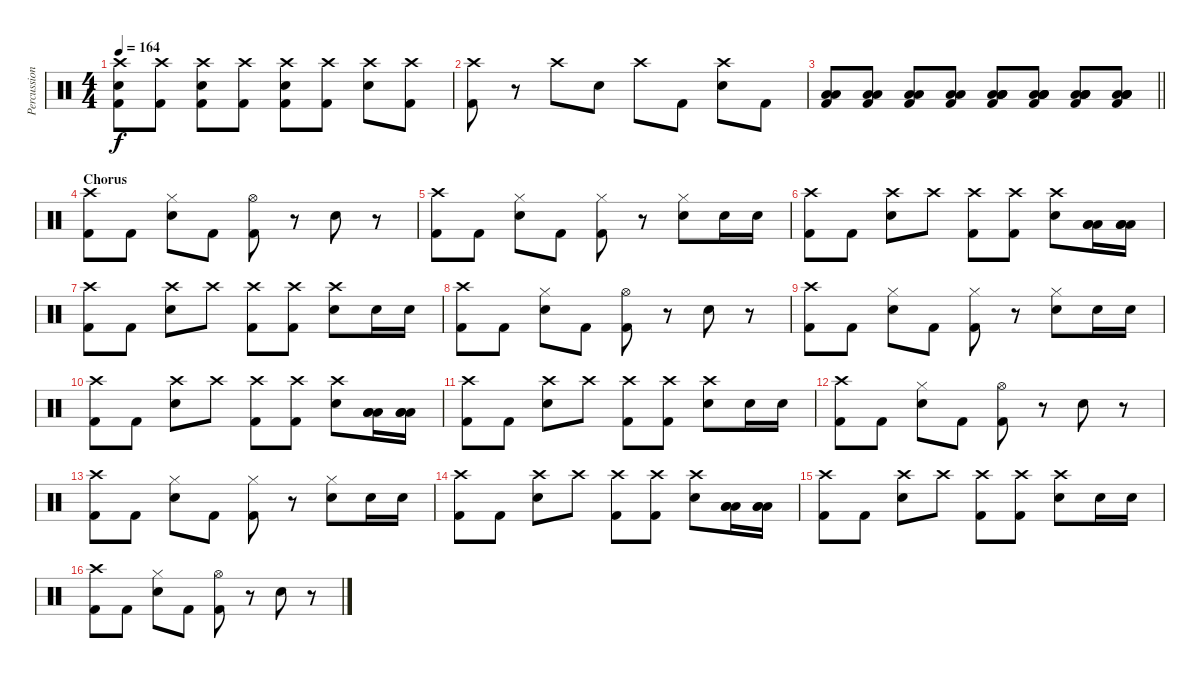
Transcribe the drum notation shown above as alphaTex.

\track ("Percussion" "Percussion") {instrument percussion}
\staff {score}
\articulation defaults
\ts (4 4)
\tempo 164
\clef neutral
\ks c
("Kick (hit) 2" "Crash high (hit)" "Snare (hit) 2").8{dy f} ("Kick (hit) 2" "Crash high (hit)").8 ("Kick (hit) 2" "Crash high (hit)" "Snare (hit) 2").8 ("Kick (hit) 2" "Crash high (hit)").8 ("Kick (hit) 2" "Crash high (hit)" "Snare (hit) 2").8 ("Kick (hit) 2" "Crash high (hit)").8 ("Crash high (hit)" "Snare (hit) 2").8 ("Kick (hit) 2" "Crash high (hit)").8 |
("Kick (hit) 2" "Crash high (hit)").8 r.8 "Crash high (hit)".8 "Snare (hit) 2".8 "Crash high (hit)".8 "Kick (hit) 2".8 ("Crash high (hit)" "Snare (hit) 2").8 "Kick (hit) 2".8 |
\barLineRight lightlight
("Kick (hit) 2" "Low Floor Tom (hit)" "Low Tom (hit)").8 ("Kick (hit) 2" "Low Floor Tom (hit)" "Low Tom (hit)").8 ("Kick (hit) 2" "Low Floor Tom (hit)" "Low Tom (hit)").8 ("Kick (hit) 2" "Low Floor Tom (hit)" "Low Tom (hit)").8 ("Kick (hit) 2" "Low Floor Tom (hit)" "Low Tom (hit)" "Low Floor Tom (hit)" "Low Tom (hit)").8 ("Kick (hit) 2" "Low Floor Tom (hit)" "Low Tom (hit)" "Low Floor Tom (hit)" "Low Tom (hit)").8 ("Kick (hit) 2" "Low Floor Tom (hit)" "Low Tom (hit)" "Low Floor Tom (hit)" "Low Tom (hit)").8 ("Kick (hit) 2" "Low Floor Tom (hit)" "Low Tom (hit)" "Low Floor Tom (hit)" "Low Tom (hit)").8 |
\section ("" "Chorus")
("Kick (hit) 2" "Crash high (hit)").8 "Kick (hit) 2".8 ("Snare (hit) 2" "Hi-Hat (closed)").8 "Kick (hit) 2".8 ("Kick (hit) 2" "Hi-Hat (open)").8 r.8 "Snare (hit) 2".8 r.8 |
("Kick (hit) 2" "Crash high (hit)").8 "Kick (hit) 2".8 ("Snare (hit) 2" "Hi-Hat (closed)").8 "Kick (hit) 2".8 ("Kick (hit) 2" "Hi-Hat (closed)").8 r.8 ("Snare (hit) 2" "Hi-Hat (closed)").8 "Snare (hit) 2".16 "Snare (hit) 2".16 |
("Kick (hit) 2" "Crash high (hit)").8 "Kick (hit) 2".8 ("Crash high (hit)" "Snare (hit) 2").8 "Crash high (hit)".8 ("Kick (hit) 2" "Crash high (hit)").8 ("Kick (hit) 2" "Crash high (hit)").8 ("Crash high (hit)" "Snare (hit) 2").8 ("Low Floor Tom (hit)" "Low Floor Tom (hit)" "Low Floor Tom (hit)").16 ("Low Floor Tom (hit)" "Low Floor Tom (hit)" "Low Floor Tom (hit)").16 |
("Kick (hit) 2" "Crash high (hit)").8 "Kick (hit) 2".8 ("Crash high (hit)" "Snare (hit) 2").8 "Crash high (hit)".8 ("Kick (hit) 2" "Crash high (hit)").8 ("Kick (hit) 2" "Crash high (hit)").8 ("Crash high (hit)" "Snare (hit) 2").8 "Snare (hit) 2".16 "Snare (hit) 2".16 |
("Kick (hit) 2" "Crash high (hit)").8 "Kick (hit) 2".8 ("Snare (hit) 2" "Hi-Hat (closed)").8 "Kick (hit) 2".8 ("Kick (hit) 2" "Hi-Hat (open)").8 r.8 "Snare (hit) 2".8 r.8 |
("Kick (hit) 2" "Crash high (hit)").8 "Kick (hit) 2".8 ("Snare (hit) 2" "Hi-Hat (closed)").8 "Kick (hit) 2".8 ("Kick (hit) 2" "Hi-Hat (closed)").8 r.8 ("Snare (hit) 2" "Hi-Hat (closed)").8 "Snare (hit) 2".16 "Snare (hit) 2".16 |
("Kick (hit) 2" "Crash high (hit)").8 "Kick (hit) 2".8 ("Crash high (hit)" "Snare (hit) 2").8 "Crash high (hit)".8 ("Kick (hit) 2" "Crash high (hit)").8 ("Kick (hit) 2" "Crash high (hit)").8 ("Crash high (hit)" "Snare (hit) 2").8 ("Low Floor Tom (hit)" "Low Floor Tom (hit)" "Low Floor Tom (hit)").16 ("Low Floor Tom (hit)" "Low Floor Tom (hit)" "Low Floor Tom (hit)").16 |
("Kick (hit) 2" "Crash high (hit)").8 "Kick (hit) 2".8 ("Crash high (hit)" "Snare (hit) 2").8 "Crash high (hit)".8 ("Kick (hit) 2" "Crash high (hit)").8 ("Kick (hit) 2" "Crash high (hit)").8 ("Crash high (hit)" "Snare (hit) 2").8 "Snare (hit) 2".16 "Snare (hit) 2".16 |
("Kick (hit) 2" "Crash high (hit)").8 "Kick (hit) 2".8 ("Snare (hit) 2" "Hi-Hat (closed)").8 "Kick (hit) 2".8 ("Kick (hit) 2" "Hi-Hat (open)").8 r.8 "Snare (hit) 2".8 r.8 |
("Kick (hit) 2" "Crash high (hit)").8 "Kick (hit) 2".8 ("Snare (hit) 2" "Hi-Hat (closed)").8 "Kick (hit) 2".8 ("Kick (hit) 2" "Hi-Hat (closed)").8 r.8 ("Snare (hit) 2" "Hi-Hat (closed)").8 "Snare (hit) 2".16 "Snare (hit) 2".16 |
("Kick (hit) 2" "Crash high (hit)").8 "Kick (hit) 2".8 ("Crash high (hit)" "Snare (hit) 2").8 "Crash high (hit)".8 ("Kick (hit) 2" "Crash high (hit)").8 ("Kick (hit) 2" "Crash high (hit)").8 ("Crash high (hit)" "Snare (hit) 2").8 ("Low Floor Tom (hit)" "Low Floor Tom (hit)" "Low Floor Tom (hit)").16 ("Low Floor Tom (hit)" "Low Floor Tom (hit)" "Low Floor Tom (hit)").16 |
("Kick (hit) 2" "Crash high (hit)").8 "Kick (hit) 2".8 ("Crash high (hit)" "Snare (hit) 2").8 "Crash high (hit)".8 ("Kick (hit) 2" "Crash high (hit)").8 ("Kick (hit) 2" "Crash high (hit)").8 ("Crash high (hit)" "Snare (hit) 2").8 "Snare (hit) 2".16 "Snare (hit) 2".16 |
("Kick (hit) 2" "Crash high (hit)").8 "Kick (hit) 2".8 ("Snare (hit) 2" "Hi-Hat (closed)").8 "Kick (hit) 2".8 ("Kick (hit) 2" "Hi-Hat (open)").8 r.8 "Snare (hit) 2".8 r.8
